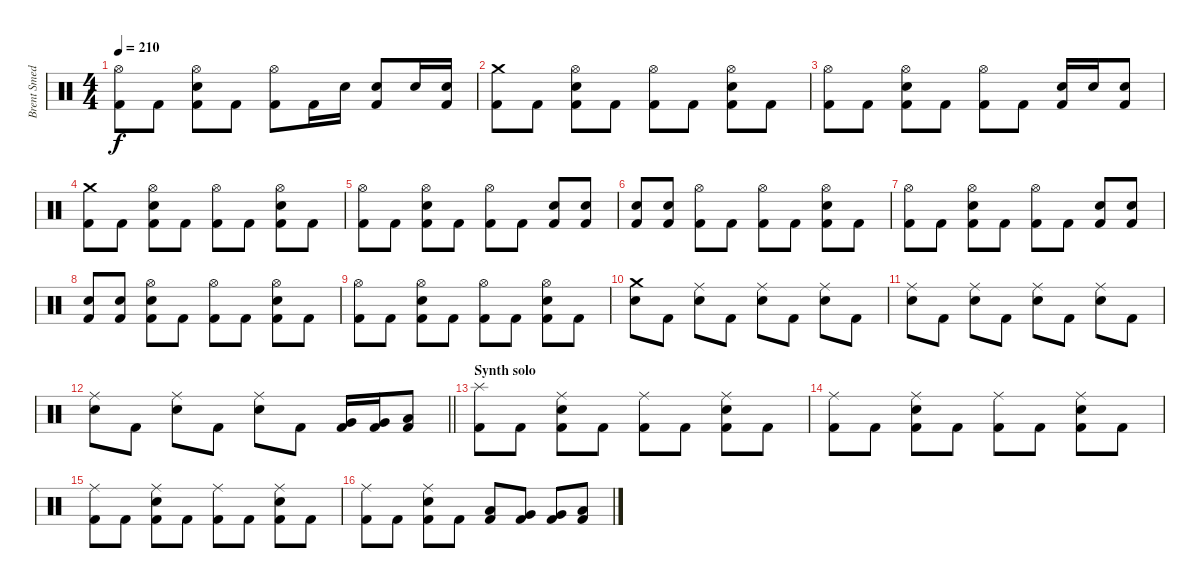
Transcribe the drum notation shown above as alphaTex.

\track ("Brent Smedley" "Brent Smed") {instrument percussion}
\staff {score}
\articulation defaults
\ts (4 4)
\tempo 210
\clef neutral
\ks c
("Hi-Hat (open)" "Kick (hit) 2").8{dy f} "Kick (hit) 2".8 ("Hi-Hat (open)" "Electric Snare (hit)" "Kick (hit) 2").8 "Kick (hit) 2".8 ("Hi-Hat (open)" "Kick (hit) 2").8 "Kick (hit) 2".16 "Electric Snare (hit)".16 ("Electric Snare (hit)" "Kick (hit) 2").8 "Electric Snare (hit)".16 ("Electric Snare (hit)" "Kick (hit) 2").16 |
("Crash medium (hit)" "Kick (hit) 2").8 "Kick (hit) 2".8 ("Hi-Hat (open)" "Electric Snare (hit)" "Kick (hit) 2").8 "Kick (hit) 2".8 ("Hi-Hat (open)" "Kick (hit) 2").8 "Kick (hit) 2".8 ("Hi-Hat (open)" "Electric Snare (hit)" "Kick (hit) 2").8 "Kick (hit) 2".8 |
("Hi-Hat (open)" "Kick (hit) 2").8 "Kick (hit) 2".8 ("Hi-Hat (open)" "Electric Snare (hit)" "Kick (hit) 2").8 "Kick (hit) 2".8 ("Hi-Hat (open)" "Kick (hit) 2").8 "Kick (hit) 2".8 ("Electric Snare (hit)" "Kick (hit) 2").16 "Electric Snare (hit)".16 ("Electric Snare (hit)" "Kick (hit) 2").8 |
("Crash medium (hit)" "Kick (hit) 2").8 "Kick (hit) 2".8 ("Hi-Hat (open)" "Electric Snare (hit)" "Kick (hit) 2").8 "Kick (hit) 2".8 ("Hi-Hat (open)" "Kick (hit) 2").8 "Kick (hit) 2".8 ("Hi-Hat (open)" "Electric Snare (hit)" "Kick (hit) 2").8 "Kick (hit) 2".8 |
("Hi-Hat (open)" "Kick (hit) 2").8 "Kick (hit) 2".8 ("Hi-Hat (open)" "Electric Snare (hit)" "Kick (hit) 2").8 "Kick (hit) 2".8 ("Hi-Hat (open)" "Kick (hit) 2").8 "Kick (hit) 2".8 ("Electric Snare (hit)" "Kick (hit) 2").8 ("Electric Snare (hit)" "Kick (hit) 2").8 |
("Electric Snare (hit)" "Kick (hit) 2").8 ("Electric Snare (hit)" "Kick (hit) 2").8 ("Hi-Hat (open)" "Kick (hit) 2").8 "Kick (hit) 2".8 ("Hi-Hat (open)" "Kick (hit) 2").8 "Kick (hit) 2".8 ("Hi-Hat (open)" "Electric Snare (hit)" "Kick (hit) 2").8 "Kick (hit) 2".8 |
("Hi-Hat (open)" "Kick (hit) 2").8 "Kick (hit) 2".8 ("Hi-Hat (open)" "Electric Snare (hit)" "Kick (hit) 2").8 "Kick (hit) 2".8 ("Hi-Hat (open)" "Kick (hit) 2").8 "Kick (hit) 2".8 ("Electric Snare (hit)" "Kick (hit) 2").8 ("Electric Snare (hit)" "Kick (hit) 2").8 |
("Electric Snare (hit)" "Kick (hit) 2").8 ("Electric Snare (hit)" "Kick (hit) 2").8 ("Hi-Hat (open)" "Electric Snare (hit)" "Kick (hit) 2").8 "Kick (hit) 2".8 ("Hi-Hat (open)" "Kick (hit) 2").8 "Kick (hit) 2".8 ("Hi-Hat (open)" "Electric Snare (hit)" "Kick (hit) 2").8 "Kick (hit) 2".8 |
("Hi-Hat (open)" "Kick (hit) 2").8 "Kick (hit) 2".8 ("Hi-Hat (open)" "Electric Snare (hit)" "Kick (hit) 2").8 "Kick (hit) 2".8 ("Hi-Hat (open)" "Kick (hit) 2").8 "Kick (hit) 2".8 ("Hi-Hat (open)" "Electric Snare (hit)" "Kick (hit) 2").8 "Kick (hit) 2".8 |
("Crash medium (hit)" "Electric Snare (hit)").8 "Kick (hit) 2".8 ("Ride (middle)" "Electric Snare (hit)").8 "Kick (hit) 2".8 ("Ride (middle)" "Electric Snare (hit)").8 "Kick (hit) 2".8 ("Ride (middle)" "Electric Snare (hit)").8 "Kick (hit) 2".8 |
("Ride (middle)" "Electric Snare (hit)").8 "Kick (hit) 2".8 ("Ride (middle)" "Electric Snare (hit)").8 "Kick (hit) 2".8 ("Ride (middle)" "Electric Snare (hit)").8 "Kick (hit) 2".8 ("Ride (middle)" "Electric Snare (hit)").8 "Kick (hit) 2".8 |
\barLineRight lightlight
("Ride (middle)" "Electric Snare (hit)").8 "Kick (hit) 2".8 ("Ride (middle)" "Electric Snare (hit)").8 "Kick (hit) 2".8 ("Ride (middle)" "Electric Snare (hit)").8 "Kick (hit) 2".8 ("Very Low Tom (hit)" "Kick (hit) 2").16 ("Very Low Tom (hit)" "Kick (hit) 2").16 ("Low Floor Tom (hit)" "Kick (hit) 2").8 |
\section ("" "Synth solo")
("Splash (hit)" "Kick (hit) 2").8 "Kick (hit) 2".8 ("Ride (middle)" "Electric Snare (hit)" "Kick (hit) 2").8 "Kick (hit) 2".8 ("Ride (middle)" "Kick (hit) 2").8 "Kick (hit) 2".8 ("Ride (middle)" "Electric Snare (hit)" "Kick (hit) 2").8 "Kick (hit) 2".8 |
("Ride (middle)" "Kick (hit) 2").8 "Kick (hit) 2".8 ("Ride (middle)" "Electric Snare (hit)" "Kick (hit) 2").8 "Kick (hit) 2".8 ("Ride (middle)" "Kick (hit) 2").8 "Kick (hit) 2".8 ("Ride (middle)" "Electric Snare (hit)" "Kick (hit) 2").8 "Kick (hit) 2".8 |
("Ride (middle)" "Kick (hit) 2").8 "Kick (hit) 2".8 ("Ride (middle)" "Electric Snare (hit)" "Kick (hit) 2").8 "Kick (hit) 2".8 ("Ride (middle)" "Kick (hit) 2").8 "Kick (hit) 2".8 ("Ride (middle)" "Electric Snare (hit)" "Kick (hit) 2").8 "Kick (hit) 2".8 |
("Ride (middle)" "Kick (hit) 2").8 "Kick (hit) 2".8 ("Ride (middle)" "Electric Snare (hit)" "Kick (hit) 2").8 "Kick (hit) 2".8 ("Low Tom (hit)" "Kick (hit) 2").8 ("Very Low Tom (hit)" "Kick (hit) 2").8 ("Very Low Tom (hit)" "Kick (hit) 2").8 ("Low Floor Tom (hit)" "Kick (hit) 2").8
